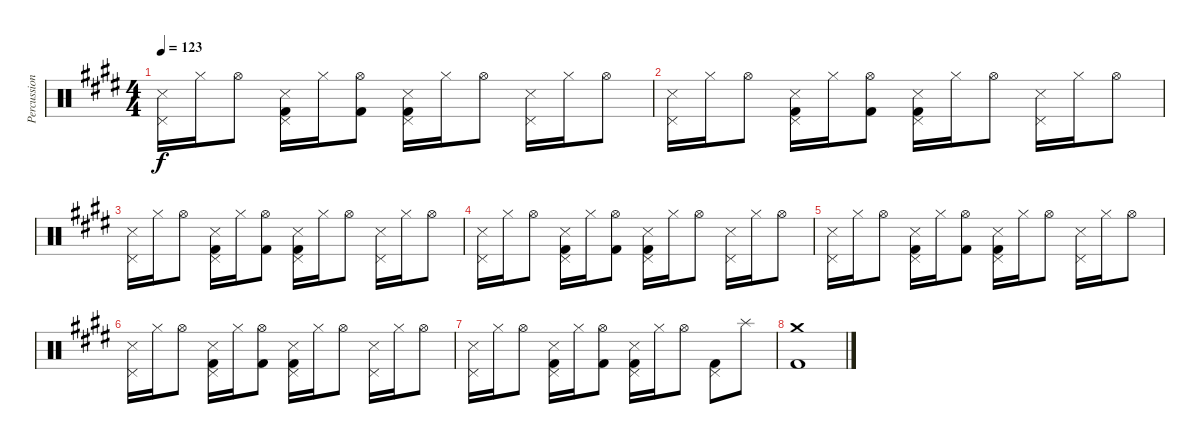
\track ("Percussioni" "Percussion") {instrument percussion}
\staff {score}
\articulation defaults
\ts (4 4)
\tempo 123
\clef neutral
\ks e
("Pedal Hi-Hat (hit)" "Metronome (hit)").16{dy f} "Hi-Hat (closed)".16 "Hi-Hat (open)".8 ("Pedal Hi-Hat (hit)" "Metronome (hit)" "Kick (hit) 2").16 "Hi-Hat (closed)".16 ("Hi-Hat (open)" "Kick (hit) 2").8 ("Pedal Hi-Hat (hit)" "Metronome (hit)" "Kick (hit) 2").16 "Hi-Hat (closed)".16 "Hi-Hat (open)".8 ("Pedal Hi-Hat (hit)" "Metronome (hit)").16 "Hi-Hat (closed)".16 "Hi-Hat (open)".8 |
("Pedal Hi-Hat (hit)" "Metronome (hit)").16 "Hi-Hat (closed)".16 "Hi-Hat (open)".8 ("Pedal Hi-Hat (hit)" "Metronome (hit)" "Kick (hit) 2").16 "Hi-Hat (closed)".16 ("Hi-Hat (open)" "Kick (hit) 2").8 ("Pedal Hi-Hat (hit)" "Metronome (hit)" "Kick (hit) 2").16 "Hi-Hat (closed)".16 "Hi-Hat (open)".8 ("Pedal Hi-Hat (hit)" "Metronome (hit)").16 "Hi-Hat (closed)".16 "Hi-Hat (open)".8 |
("Pedal Hi-Hat (hit)" "Metronome (hit)").16 "Hi-Hat (closed)".16 "Hi-Hat (open)".8 ("Pedal Hi-Hat (hit)" "Metronome (hit)" "Kick (hit) 2").16 "Hi-Hat (closed)".16 ("Hi-Hat (open)" "Kick (hit) 2").8 ("Pedal Hi-Hat (hit)" "Metronome (hit)" "Kick (hit) 2").16 "Hi-Hat (closed)".16 "Hi-Hat (open)".8 ("Pedal Hi-Hat (hit)" "Metronome (hit)").16 "Hi-Hat (closed)".16 "Hi-Hat (open)".8 |
("Pedal Hi-Hat (hit)" "Metronome (hit)").16 "Hi-Hat (closed)".16 "Hi-Hat (open)".8 ("Pedal Hi-Hat (hit)" "Metronome (hit)" "Kick (hit) 2").16 "Hi-Hat (closed)".16 ("Hi-Hat (open)" "Kick (hit) 2").8 ("Pedal Hi-Hat (hit)" "Metronome (hit)" "Kick (hit) 2").16 "Hi-Hat (closed)".16 "Hi-Hat (open)".8 ("Pedal Hi-Hat (hit)" "Metronome (hit)").16 "Hi-Hat (closed)".16 "Hi-Hat (open)".8 |
("Pedal Hi-Hat (hit)" "Metronome (hit)").16 "Hi-Hat (closed)".16 "Hi-Hat (open)".8 ("Pedal Hi-Hat (hit)" "Metronome (hit)" "Kick (hit) 2").16 "Hi-Hat (closed)".16 ("Hi-Hat (open)" "Kick (hit) 2").8 ("Pedal Hi-Hat (hit)" "Metronome (hit)" "Kick (hit) 2").16 "Hi-Hat (closed)".16 "Hi-Hat (open)".8 ("Pedal Hi-Hat (hit)" "Metronome (hit)").16 "Hi-Hat (closed)".16 "Hi-Hat (open)".8 |
("Pedal Hi-Hat (hit)" "Metronome (hit)").16 "Hi-Hat (closed)".16 "Hi-Hat (open)".8 ("Pedal Hi-Hat (hit)" "Metronome (hit)" "Kick (hit) 2").16 "Hi-Hat (closed)".16 ("Hi-Hat (open)" "Kick (hit) 2").8 ("Pedal Hi-Hat (hit)" "Metronome (hit)" "Kick (hit) 2").16 "Hi-Hat (closed)".16 "Hi-Hat (open)".8 ("Pedal Hi-Hat (hit)" "Metronome (hit)").16 "Hi-Hat (closed)".16 "Hi-Hat (open)".8 |
("Pedal Hi-Hat (hit)" "Metronome (hit)").16 "Hi-Hat (closed)".16 "Hi-Hat (open)".8 ("Pedal Hi-Hat (hit)" "Metronome (hit)" "Kick (hit) 2").16 "Hi-Hat (closed)".16 ("Hi-Hat (open)" "Kick (hit) 2").8 ("Pedal Hi-Hat (hit)" "Metronome (hit)" "Kick (hit) 2").16 "Hi-Hat (closed)".16 "Hi-Hat (open)".8 ("Pedal Hi-Hat (hit)" "Kick (hit) 2").8 "Splash (hit)".8 |
("Crash medium (hit)" "Kick (hit) 2").1
